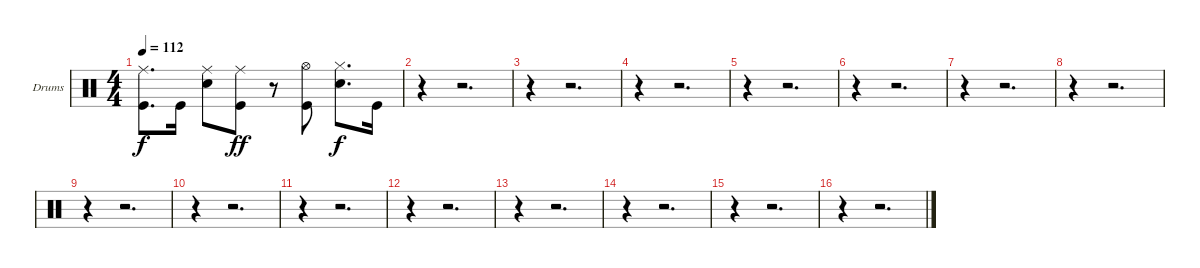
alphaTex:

\bracketExtendMode groupsimilarinstruments
\firstSystemTrackNameOrientation horizontal
\otherSystemsTrackNameOrientation horizontal
\track ("Drumkit" "Drums") {instrument percussion}
\staff {score}
\articulation defaults
\ts (4 4)
\tempo 112
\clef neutral
\ks c
("Ride (middle)" "Kick (hit)").8{d dy f} "Kick (hit)".16 ("Ride (middle)" "Snare (hit) 2").8 ("Ride (middle)" "Kick (hit)").8{dy ff} r.8 ("Hi-Hat (open)" "Kick (hit)").8 ("Hi-Hat (closed)" "Snare (hit) 2").8{d dy f} "Kick (hit)".16 |
r.4 r.2{d} |
r.4 r.2{d} |
r.4 r.2{d} |
r.4 r.2{d} |
r.4 r.2{d} |
r.4 r.2{d} |
r.4 r.2{d} |
r.4 r.2{d} |
r.4 r.2{d} |
r.4 r.2{d} |
r.4 r.2{d} |
r.4 r.2{d} |
r.4 r.2{d} |
r.4 r.2{d} |
r.4 r.2{d}
